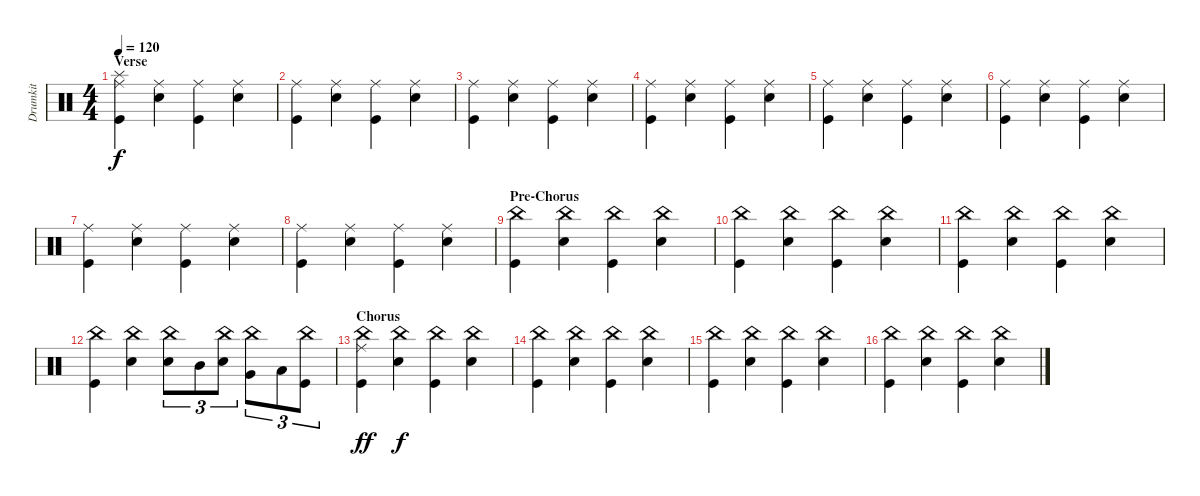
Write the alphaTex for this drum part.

\track ("Drumkit" "Drumkit") {instrument percussion}
\staff {score}
\articulation defaults
\ts (4 4)
\section ("" "Verse")
\tempo 120
\clef neutral
\ks c
("Kick (hit)" "Ride (middle)" "Splash (hit)").4{dy f} ("Snare (hit) 2" "Ride (middle)").4 ("Kick (hit)" "Ride (middle)").4 ("Snare (hit) 2" "Ride (middle)").4 |
("Kick (hit)" "Ride (middle)").4 ("Snare (hit) 2" "Ride (middle)").4 ("Kick (hit)" "Ride (middle)").4 ("Snare (hit) 2" "Ride (middle)").4 |
("Kick (hit)" "Ride (middle)").4 ("Snare (hit) 2" "Ride (middle)").4 ("Kick (hit)" "Ride (middle)").4 ("Snare (hit) 2" "Ride (middle)").4 |
("Kick (hit)" "Ride (middle)").4 ("Snare (hit) 2" "Ride (middle)").4 ("Kick (hit)" "Ride (middle)").4 ("Snare (hit) 2" "Ride (middle)").4 |
("Kick (hit)" "Ride (middle)").4 ("Snare (hit) 2" "Ride (middle)").4 ("Kick (hit)" "Ride (middle)").4 ("Snare (hit) 2" "Ride (middle)").4 |
("Kick (hit)" "Ride (middle)").4 ("Snare (hit) 2" "Ride (middle)").4 ("Kick (hit)" "Ride (middle)").4 ("Snare (hit) 2" "Ride (middle)").4 |
("Kick (hit)" "Ride (middle)").4 ("Snare (hit) 2" "Ride (middle)").4 ("Kick (hit)" "Ride (middle)").4 ("Snare (hit) 2" "Ride (middle)").4 |
("Kick (hit)" "Ride (middle)").4 ("Snare (hit) 2" "Ride (middle)").4 ("Kick (hit)" "Ride (middle)").4 ("Snare (hit) 2" "Ride (middle)").4 |
\section ("" "Pre-Chorus")
("Kick (hit)" "China (hit)").4 ("Snare (hit) 2" "China (hit)").4 ("Kick (hit)" "China (hit)").4 ("Snare (hit) 2" "China (hit)").4 |
("Kick (hit)" "China (hit)").4 ("Snare (hit) 2" "China (hit)").4 ("Kick (hit)" "China (hit)").4 ("Snare (hit) 2" "China (hit)").4 |
("Kick (hit)" "China (hit)").4 ("Snare (hit) 2" "China (hit)").4 ("Kick (hit)" "China (hit)").4 ("Snare (hit) 2" "China (hit)").4 |
("Kick (hit)" "China (hit)").4 ("Snare (hit) 2" "China (hit)").4 ("Snare (hit) 2" "China (hit)").8{tu (3 2)} "Mid Tom (hit)".8{tu (3 2)} ("Snare (hit) 2" "China (hit)").8{tu (3 2)} ("Very Low Tom (hit)" "China (hit)").8{tu (3 2)} "Low Floor Tom (hit)".8{tu (3 2)} ("Kick (hit)" "China (hit)").8{tu (3 2)} |
\section ("" "Chorus")
("Kick (hit)" "China (hit)" "Ride (middle)").4{dy ff} ("Snare (hit) 2" "China (hit)").4{dy f} ("Kick (hit)" "China (hit)").4 ("Snare (hit) 2" "China (hit)").4 |
("Kick (hit)" "China (hit)").4 ("Snare (hit) 2" "China (hit)").4 ("Kick (hit)" "China (hit)").4 ("Snare (hit) 2" "China (hit)").4 |
("Kick (hit)" "China (hit)").4 ("Snare (hit) 2" "China (hit)").4 ("Kick (hit)" "China (hit)").4 ("Snare (hit) 2" "China (hit)").4 |
("Kick (hit)" "China (hit)").4 ("Snare (hit) 2" "China (hit)").4 ("Kick (hit)" "China (hit)").4 ("Snare (hit) 2" "China (hit)").4
